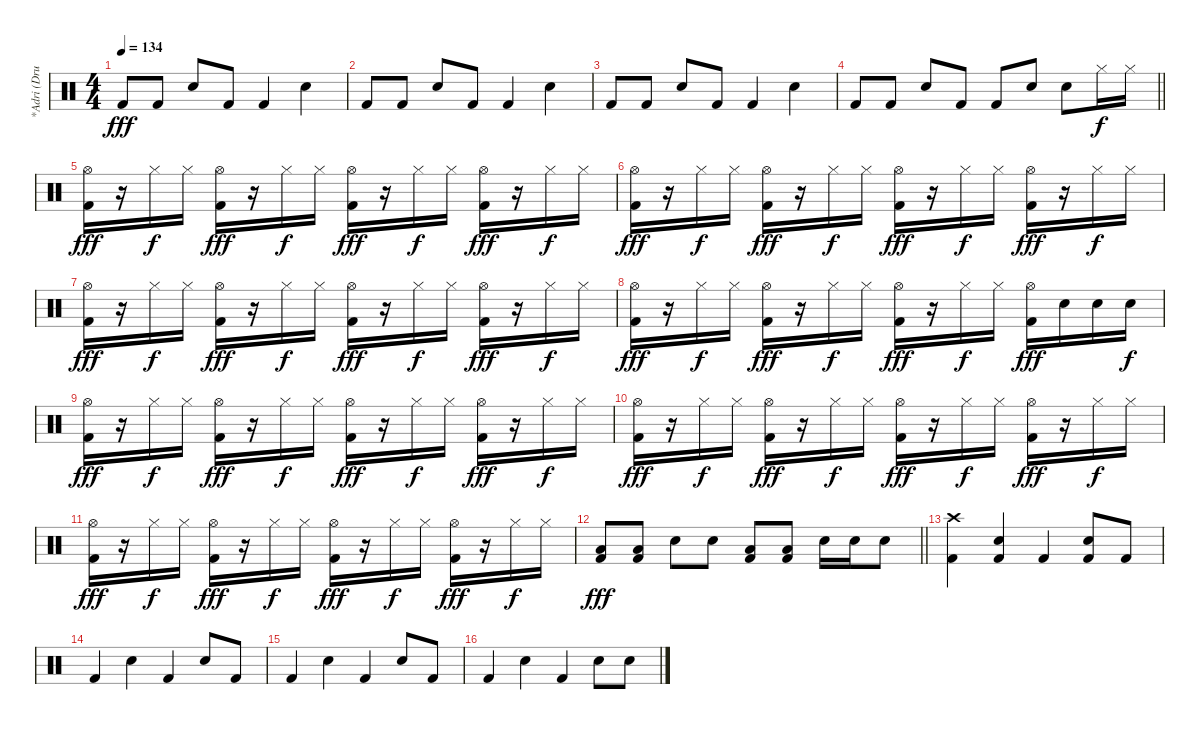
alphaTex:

\track ("*Adri (Drum)" "*Adri (Dru") {instrument percussion}
\staff {score}
\articulation defaults
\ts (4 4)
\tempo 134
\clef neutral
\ks c "Kick (hit) 2".8{dy fff} "Kick (hit) 2".8 "Snare (hit) 2".8 "Kick (hit) 2".8 "Kick (hit) 2".4 "Snare (hit) 2".4
|
"Kick (hit) 2".8 "Kick (hit) 2".8 "Snare (hit) 2".8 "Kick (hit) 2".8 "Kick (hit) 2".4 "Snare (hit) 2".4 |
"Kick (hit) 2".8 "Kick (hit) 2".8 "Snare (hit) 2".8 "Kick (hit) 2".8 "Kick (hit) 2".4 "Snare (hit) 2".4 |
\barLineRight lightlight "Kick (hit) 2".8 "Kick (hit) 2".8 "Snare (hit) 2".8 "Kick (hit) 2".8 "Kick (hit) 2".8 "Snare (hit) 2".8 "Snare (hit) 2".8 "Hi-Hat (closed)".16{dy f} "Hi-Hat (closed)".16
|
\section ("" "")
("Hi-Hat (open)" "Kick (hit) 2").16{dy fff} r.16 "Hi-Hat (closed)".16{dy f} "Hi-Hat (closed)".16 ("Hi-Hat (open)" "Kick (hit) 2").16{dy fff} r.16 "Hi-Hat (closed)".16{dy f} "Hi-Hat (closed)".16 ("Hi-Hat (open)" "Kick (hit) 2").16{dy fff} r.16 "Hi-Hat (closed)".16{dy f} "Hi-Hat (closed)".16 ("Hi-Hat (open)" "Kick (hit) 2").16{dy fff} r.16 "Hi-Hat (closed)".16{dy f} "Hi-Hat (closed)".16 |
("Hi-Hat (open)" "Kick (hit) 2").16{dy fff} r.16 "Hi-Hat (closed)".16{dy f} "Hi-Hat (closed)".16 ("Hi-Hat (open)" "Kick (hit) 2").16{dy fff} r.16 "Hi-Hat (closed)".16{dy f} "Hi-Hat (closed)".16 ("Hi-Hat (open)" "Kick (hit) 2").16{dy fff} r.16 "Hi-Hat (closed)".16{dy f} "Hi-Hat (closed)".16 ("Hi-Hat (open)" "Kick (hit) 2").16{dy fff} r.16 "Hi-Hat (closed)".16{dy f} "Hi-Hat (closed)".16 |
("Hi-Hat (open)" "Kick (hit) 2").16{dy fff} r.16 "Hi-Hat (closed)".16{dy f} "Hi-Hat (closed)".16 ("Hi-Hat (open)" "Kick (hit) 2").16{dy fff} r.16 "Hi-Hat (closed)".16{dy f} "Hi-Hat (closed)".16 ("Hi-Hat (open)" "Kick (hit) 2").16{dy fff} r.16 "Hi-Hat (closed)".16{dy f} "Hi-Hat (closed)".16 ("Hi-Hat (open)" "Kick (hit) 2").16{dy fff} r.16 "Hi-Hat (closed)".16{dy f} "Hi-Hat (closed)".16 |
("Hi-Hat (open)" "Kick (hit) 2").16{dy fff} r.16 "Hi-Hat (closed)".16{dy f} "Hi-Hat (closed)".16 ("Hi-Hat (open)" "Kick (hit) 2").16{dy fff} r.16 "Hi-Hat (closed)".16{dy f} "Hi-Hat (closed)".16 ("Hi-Hat (open)" "Kick (hit) 2").16{dy fff} r.16 "Hi-Hat (closed)".16{dy f} "Hi-Hat (closed)".16 ("Hi-Hat (open)" "Kick (hit) 2").16{dy fff} "Snare (hit) 2".16 "Snare (hit) 2".16 "Snare (hit) 2".16{dy f} |
("Hi-Hat (open)" "Kick (hit) 2").16{dy fff} r.16 "Hi-Hat (closed)".16{dy f} "Hi-Hat (closed)".16 ("Hi-Hat (open)" "Kick (hit) 2").16{dy fff} r.16 "Hi-Hat (closed)".16{dy f} "Hi-Hat (closed)".16 ("Hi-Hat (open)" "Kick (hit) 2").16{dy fff} r.16 "Hi-Hat (closed)".16{dy f} "Hi-Hat (closed)".16 ("Hi-Hat (open)" "Kick (hit) 2").16{dy fff} r.16 "Hi-Hat (closed)".16{dy f} "Hi-Hat (closed)".16 |
("Hi-Hat (open)" "Kick (hit) 2").16{dy fff} r.16 "Hi-Hat (closed)".16{dy f} "Hi-Hat (closed)".16 ("Hi-Hat (open)" "Kick (hit) 2").16{dy fff} r.16 "Hi-Hat (closed)".16{dy f} "Hi-Hat (closed)".16 ("Hi-Hat (open)" "Kick (hit) 2").16{dy fff} r.16 "Hi-Hat (closed)".16{dy f} "Hi-Hat (closed)".16 ("Hi-Hat (open)" "Kick (hit) 2").16{dy fff} r.16 "Hi-Hat (closed)".16{dy f} "Hi-Hat (closed)".16 |
("Hi-Hat (open)" "Kick (hit) 2").16{dy fff} r.16 "Hi-Hat (closed)".16{dy f} "Hi-Hat (closed)".16 ("Hi-Hat (open)" "Kick (hit) 2").16{dy fff} r.16 "Hi-Hat (closed)".16{dy f} "Hi-Hat (closed)".16 ("Hi-Hat (open)" "Kick (hit) 2").16{dy fff} r.16 "Hi-Hat (closed)".16{dy f} "Hi-Hat (closed)".16 ("Hi-Hat (open)" "Kick (hit) 2").16{dy fff} r.16 "Hi-Hat (closed)".16{dy f} "Hi-Hat (closed)".16 |
\barLineRight lightlight
("Low Tom (hit)" "Kick (hit) 2").8{dy fff} ("Low Tom (hit)" "Kick (hit) 2").8 "Snare (hit) 2".8 "Snare (hit) 2".8 ("Low Tom (hit)" "Kick (hit) 2").8 ("Low Tom (hit)" "Kick (hit) 2").8 "Snare (hit) 2".16 "Snare (hit) 2".16 "Snare (hit) 2".8 |
\section ("" "")
("Crash high (hit)" "Kick (hit) 2").4 ("Snare (hit) 2" "Kick (hit) 2").4 "Kick (hit) 2".4 ("Snare (hit) 2" "Kick (hit) 2").8 "Kick (hit) 2".8 |
"Kick (hit) 2".4 "Snare (hit) 2".4 "Kick (hit) 2".4 "Snare (hit) 2".8 "Kick (hit) 2".8 |
"Kick (hit) 2".4 "Snare (hit) 2".4 "Kick (hit) 2".4 "Snare (hit) 2".8 "Kick (hit) 2".8 |
"Kick (hit) 2".4 "Snare (hit) 2".4 "Kick (hit) 2".4 "Snare (hit) 2".8 "Snare (hit) 2".8
